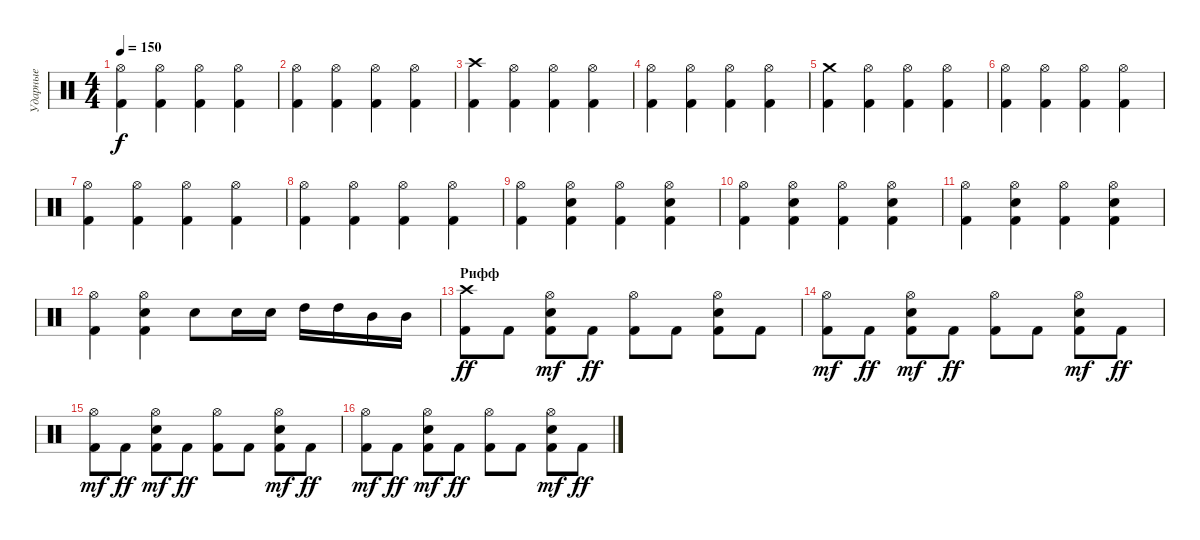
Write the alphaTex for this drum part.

\track ("Ударные" "Ударные") {instrument percussion}
\staff {score}
\articulation defaults
\ts (4 4)
\tempo 150
\clef neutral
\ks c
("Hi-Hat (open)" "Kick (hit) 2").4{dy f} ("Hi-Hat (open)" "Kick (hit) 2").4 ("Hi-Hat (open)" "Kick (hit) 2").4 ("Hi-Hat (open)" "Kick (hit) 2").4 |
("Hi-Hat (open)" "Kick (hit) 2").4 ("Hi-Hat (open)" "Kick (hit) 2").4 ("Hi-Hat (open)" "Kick (hit) 2").4 ("Hi-Hat (open)" "Kick (hit) 2").4 |
("Crash high (hit)" "Kick (hit) 2").4 ("Hi-Hat (open)" "Kick (hit) 2").4 ("Hi-Hat (open)" "Kick (hit) 2").4 ("Hi-Hat (open)" "Kick (hit) 2").4 |
("Hi-Hat (open)" "Kick (hit) 2").4 ("Hi-Hat (open)" "Kick (hit) 2").4 ("Hi-Hat (open)" "Kick (hit) 2").4 ("Hi-Hat (open)" "Kick (hit) 2").4 |
("Crash medium (hit)" "Kick (hit) 2").4 ("Hi-Hat (open)" "Kick (hit) 2").4 ("Hi-Hat (open)" "Kick (hit) 2").4 ("Hi-Hat (open)" "Kick (hit) 2").4 |
("Hi-Hat (open)" "Kick (hit) 2").4 ("Hi-Hat (open)" "Kick (hit) 2").4 ("Hi-Hat (open)" "Kick (hit) 2").4 ("Hi-Hat (open)" "Kick (hit) 2").4 |
("Hi-Hat (open)" "Kick (hit) 2").4 ("Hi-Hat (open)" "Kick (hit) 2").4 ("Hi-Hat (open)" "Kick (hit) 2").4 ("Hi-Hat (open)" "Kick (hit) 2").4 |
("Hi-Hat (open)" "Kick (hit) 2").4 ("Hi-Hat (open)" "Kick (hit) 2").4 ("Hi-Hat (open)" "Kick (hit) 2").4 ("Hi-Hat (open)" "Kick (hit) 2").4 |
("Hi-Hat (open)" "Kick (hit) 2").4 ("Hi-Hat (open)" "Electric Snare (hit)" "Kick (hit) 2").4 ("Hi-Hat (open)" "Kick (hit) 2").4 ("Hi-Hat (open)" "Electric Snare (hit)" "Kick (hit) 2").4 |
("Hi-Hat (open)" "Kick (hit) 2").4 ("Hi-Hat (open)" "Electric Snare (hit)" "Kick (hit) 2").4 ("Hi-Hat (open)" "Kick (hit) 2").4 ("Hi-Hat (open)" "Electric Snare (hit)" "Kick (hit) 2").4 |
("Hi-Hat (open)" "Kick (hit) 2").4 ("Hi-Hat (open)" "Electric Snare (hit)" "Kick (hit) 2").4 ("Hi-Hat (open)" "Kick (hit) 2").4 ("Hi-Hat (open)" "Electric Snare (hit)" "Kick (hit) 2").4 |
("Hi-Hat (open)" "Kick (hit) 2").4 ("Hi-Hat (open)" "Electric Snare (hit)" "Kick (hit) 2").4 "Electric Snare (hit)".8 "Electric Snare (hit)".16 "Electric Snare (hit)".16 "High Tom (hit)".16 "High Tom (hit)".16 "Mid Tom (hit)".16 "Mid Tom (hit)".16 |
\section ("" "Рифф")
("Crash high (hit)" "Kick (hit) 2").8{dy ff} "Kick (hit) 2".8 ("Kick (hit) 2" "Electric Snare (hit)" "Hi-Hat (open)").8{dy mf} "Kick (hit) 2".8{dy ff} ("Hi-Hat (open)" "Kick (hit) 2").8 "Kick (hit) 2".8 ("Kick (hit) 2" "Hi-Hat (open)" "Electric Snare (hit)").8 "Kick (hit) 2".8 |
("Kick (hit) 2" "Hi-Hat (open)").8{dy mf} "Kick (hit) 2".8{dy ff} ("Electric Snare (hit)" "Kick (hit) 2" "Hi-Hat (open)").8{dy mf} "Kick (hit) 2".8{dy ff} ("Hi-Hat (open)" "Kick (hit) 2").8 "Kick (hit) 2".8 ("Electric Snare (hit)" "Kick (hit) 2" "Hi-Hat (open)").8{dy mf} "Kick (hit) 2".8{dy ff} |
("Kick (hit) 2" "Hi-Hat (open)").8{dy mf} "Kick (hit) 2".8{dy ff} ("Electric Snare (hit)" "Kick (hit) 2" "Hi-Hat (open)").8{dy mf} "Kick (hit) 2".8{dy ff} ("Hi-Hat (open)" "Kick (hit) 2").8 "Kick (hit) 2".8 ("Electric Snare (hit)" "Kick (hit) 2" "Hi-Hat (open)").8{dy mf} "Kick (hit) 2".8{dy ff} |
("Kick (hit) 2" "Hi-Hat (open)").8{dy mf} "Kick (hit) 2".8{dy ff} ("Electric Snare (hit)" "Kick (hit) 2" "Hi-Hat (open)").8{dy mf} "Kick (hit) 2".8{dy ff} ("Hi-Hat (open)" "Kick (hit) 2").8 "Kick (hit) 2".8 ("Electric Snare (hit)" "Kick (hit) 2" "Hi-Hat (open)").8{dy mf} "Kick (hit) 2".8{dy ff}
